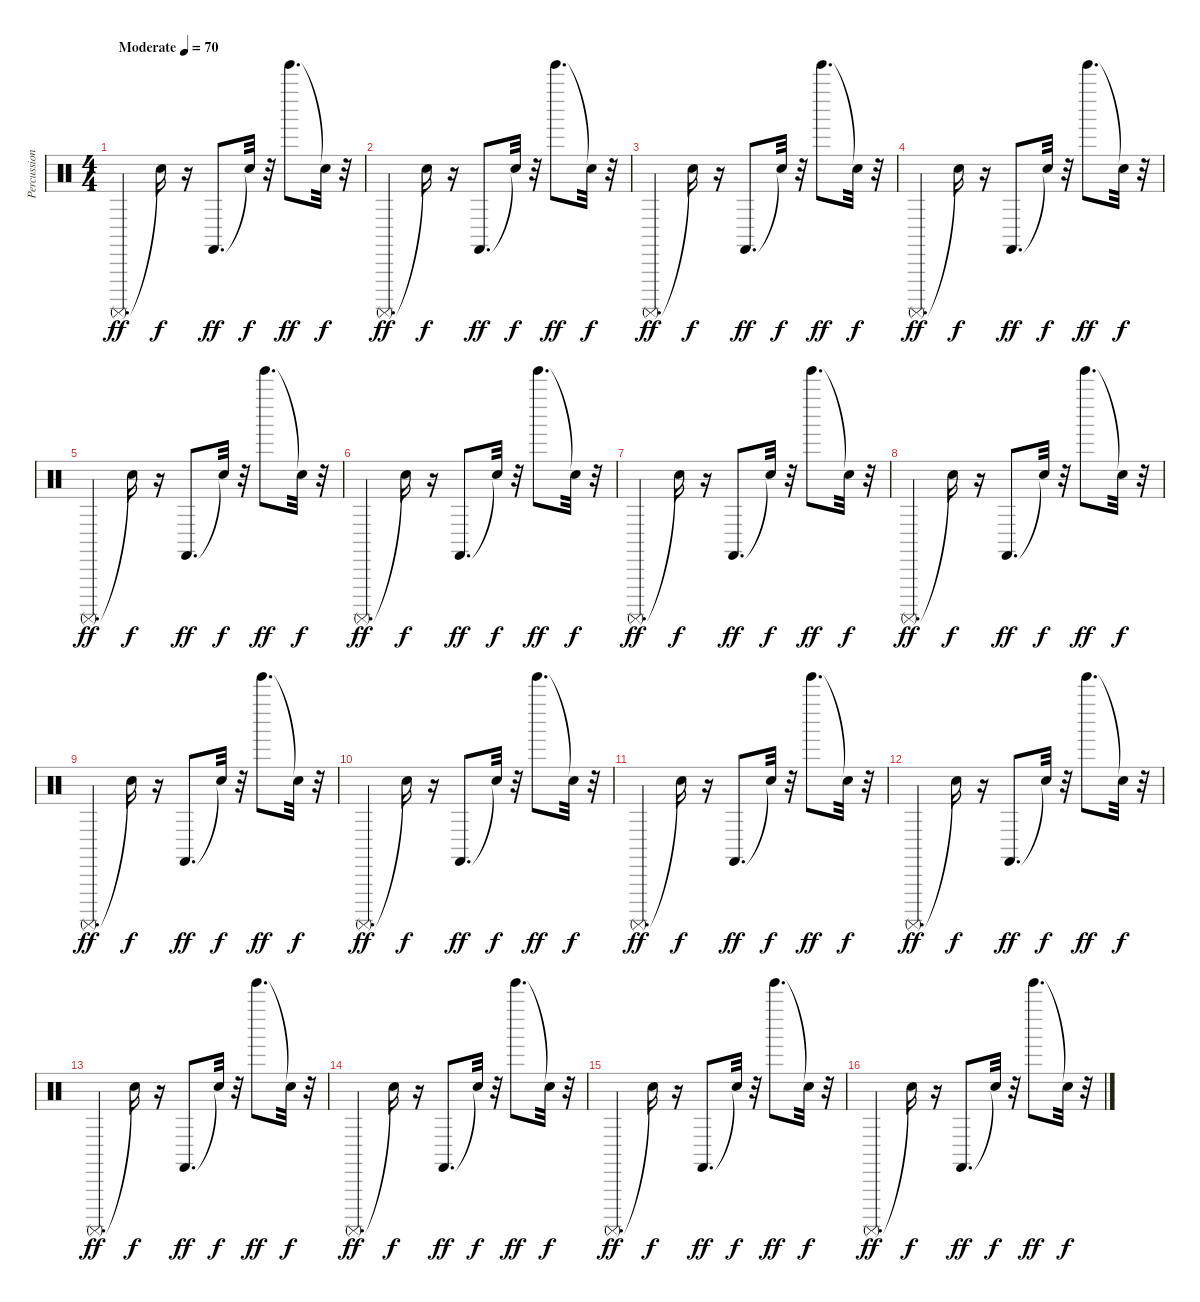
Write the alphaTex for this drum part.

\track ("Percussions" "Percussion") {instrument percussion}
\staff {score}
\articulation defaults
\ts (4 4)
\tempo (70 "Moderate")
\clef neutral
\ks c "Surdo (mute)".4{d dy ff} "Snare (hit)"{t}.16{dy f}
r.16 "Castanets (hit)".8{d dy ff} "Snare (hit)"{t}.32{dy f} r.32 "Tinkle Bell (hit)".8{d dy ff} "Snare (hit)"{t}.32{dy f} r.32 |
"Surdo (mute)".4{d dy ff} "Snare (hit)"{t}.16{dy f} r.16 "Castanets (hit)".8{d dy ff} "Snare (hit)"{t}.32{dy f} r.32 "Tinkle Bell (hit)".8{d dy ff} "Snare (hit)"{t}.32{dy f} r.32 |
"Surdo (mute)".4{d dy ff} "Snare (hit)"{t}.16{dy f} r.16 "Castanets (hit)".8{d dy ff} "Snare (hit)"{t}.32{dy f} r.32 "Tinkle Bell (hit)".8{d dy ff} "Snare (hit)"{t}.32{dy f} r.32 |
"Surdo (mute)".4{d dy ff} "Snare (hit)"{t}.16{dy f} r.16 "Castanets (hit)".8{d dy ff} "Snare (hit)"{t}.32{dy f} r.32 "Tinkle Bell (hit)".8{d dy ff} "Snare (hit)"{t}.32{dy f} r.32 |
"Surdo (mute)".4{d dy ff} "Snare (hit)"{t}.16{dy f} r.16 "Castanets (hit)".8{d dy ff} "Snare (hit)"{t}.32{dy f} r.32 "Tinkle Bell (hit)".8{d dy ff} "Snare (hit)"{t}.32{dy f} r.32 |
"Surdo (mute)".4{d dy ff} "Snare (hit)"{t}.16{dy f} r.16 "Castanets (hit)".8{d dy ff} "Snare (hit)"{t}.32{dy f} r.32 "Tinkle Bell (hit)".8{d dy ff} "Snare (hit)"{t}.32{dy f} r.32 |
"Surdo (mute)".4{d dy ff} "Snare (hit)"{t}.16{dy f} r.16 "Castanets (hit)".8{d dy ff} "Snare (hit)"{t}.32{dy f} r.32 "Tinkle Bell (hit)".8{d dy ff} "Snare (hit)"{t}.32{dy f} r.32 |
"Surdo (mute)".4{d dy ff} "Snare (hit)"{t}.16{dy f} r.16 "Castanets (hit)".8{d dy ff} "Snare (hit)"{t}.32{dy f} r.32 "Tinkle Bell (hit)".8{d dy ff} "Snare (hit)"{t}.32{dy f} r.32 |
"Surdo (mute)".4{d dy ff} "Snare (hit)"{t}.16{dy f} r.16 "Castanets (hit)".8{d dy ff} "Snare (hit)"{t}.32{dy f} r.32 "Tinkle Bell (hit)".8{d dy ff} "Snare (hit)"{t}.32{dy f} r.32 |
"Surdo (mute)".4{d dy ff} "Snare (hit)"{t}.16{dy f} r.16 "Castanets (hit)".8{d dy ff} "Snare (hit)"{t}.32{dy f} r.32 "Tinkle Bell (hit)".8{d dy ff} "Snare (hit)"{t}.32{dy f} r.32 |
"Surdo (mute)".4{d dy ff} "Snare (hit)"{t}.16{dy f} r.16 "Castanets (hit)".8{d dy ff} "Snare (hit)"{t}.32{dy f} r.32 "Tinkle Bell (hit)".8{d dy ff} "Snare (hit)"{t}.32{dy f} r.32 |
"Surdo (mute)".4{d dy ff} "Snare (hit)"{t}.16{dy f} r.16 "Castanets (hit)".8{d dy ff} "Snare (hit)"{t}.32{dy f} r.32 "Tinkle Bell (hit)".8{d dy ff} "Snare (hit)"{t}.32{dy f} r.32 |
"Surdo (mute)".4{d dy ff} "Snare (hit)"{t}.16{dy f} r.16 "Castanets (hit)".8{d dy ff} "Snare (hit)"{t}.32{dy f} r.32 "Tinkle Bell (hit)".8{d dy ff} "Snare (hit)"{t}.32{dy f} r.32 |
"Surdo (mute)".4{d dy ff} "Snare (hit)"{t}.16{dy f} r.16 "Castanets (hit)".8{d dy ff} "Snare (hit)"{t}.32{dy f} r.32 "Tinkle Bell (hit)".8{d dy ff} "Snare (hit)"{t}.32{dy f} r.32 |
"Surdo (mute)".4{d dy ff} "Snare (hit)"{t}.16{dy f} r.16 "Castanets (hit)".8{d dy ff} "Snare (hit)"{t}.32{dy f} r.32 "Tinkle Bell (hit)".8{d dy ff} "Snare (hit)"{t}.32{dy f} r.32 |
"Surdo (mute)".4{d dy ff} "Snare (hit)"{t}.16{dy f} r.16 "Castanets (hit)".8{d dy ff} "Snare (hit)"{t}.32{dy f} r.32 "Tinkle Bell (hit)".8{d dy ff} "Snare (hit)"{t}.32{dy f} r.32
